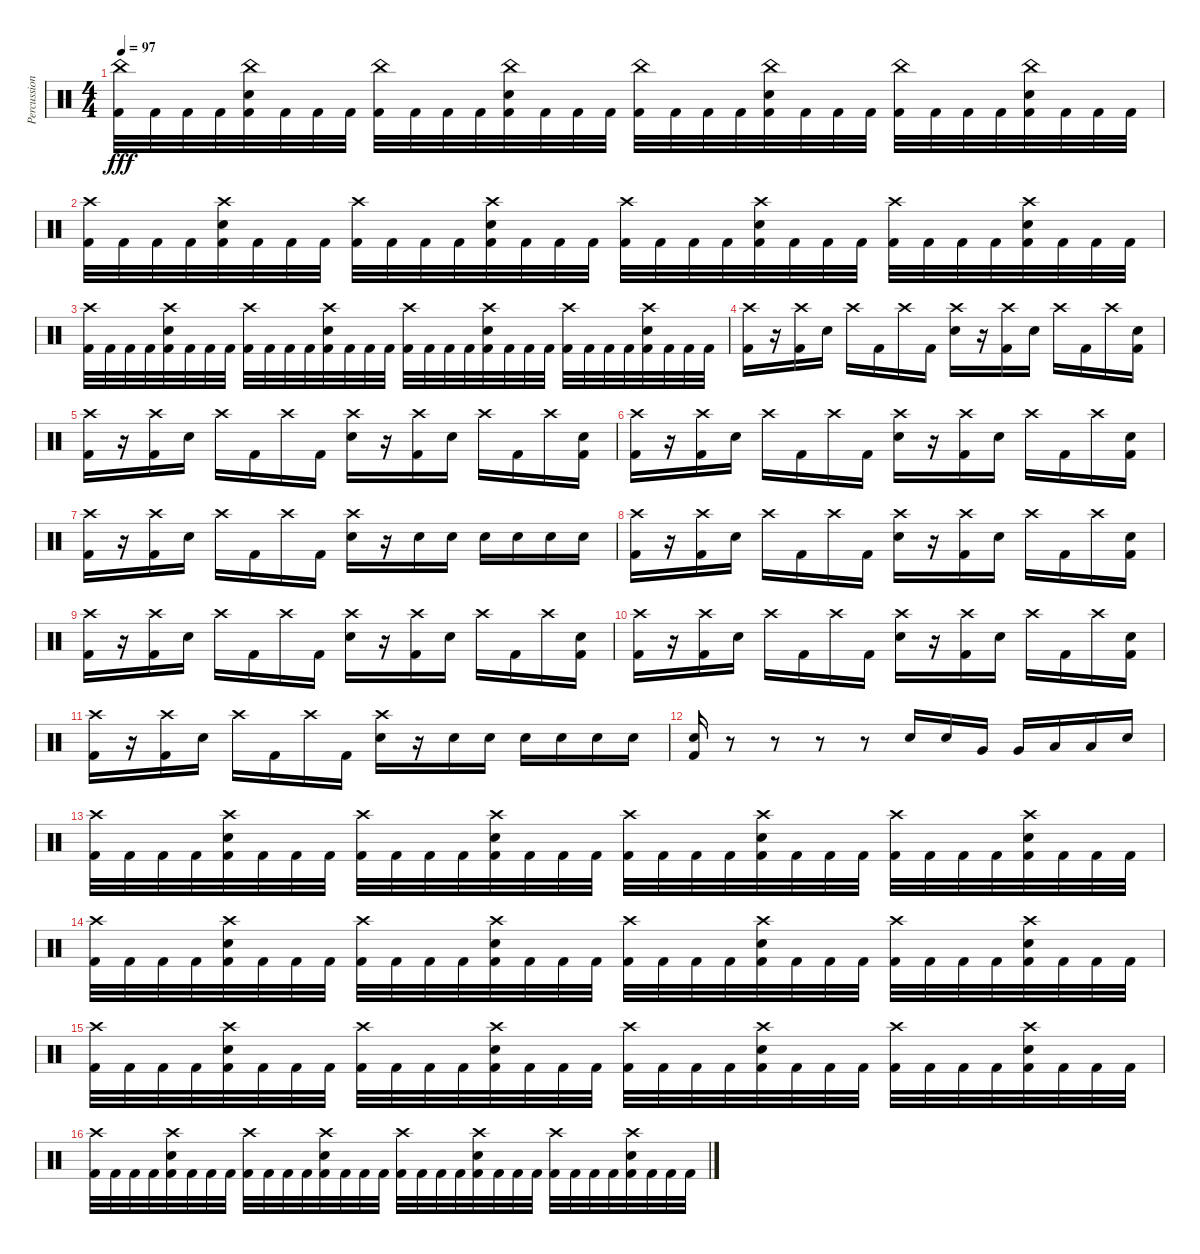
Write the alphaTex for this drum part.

\track ("Percussion" "Percussion") {instrument percussion}
\staff {score}
\articulation defaults
\ts (4 4)
\tempo 97
\clef neutral
\ks c
("China (hit)" "Kick (hit) 2").32{dy fff} "Kick (hit) 2".32 "Kick (hit) 2".32 "Kick (hit) 2".32 ("China (hit)" "Snare (hit) 2" "Kick (hit) 2").32 "Kick (hit) 2".32 "Kick (hit) 2".32 "Kick (hit) 2".32 ("China (hit)" "Kick (hit) 2").32 "Kick (hit) 2".32 "Kick (hit) 2".32 "Kick (hit) 2".32 ("China (hit)" "Snare (hit) 2" "Kick (hit) 2").32 "Kick (hit) 2".32 "Kick (hit) 2".32 "Kick (hit) 2".32 ("China (hit)" "Kick (hit) 2").32 "Kick (hit) 2".32 "Kick (hit) 2".32 "Kick (hit) 2".32 ("China (hit)" "Snare (hit) 2" "Kick (hit) 2").32 "Kick (hit) 2".32 "Kick (hit) 2".32 "Kick (hit) 2".32 ("China (hit)" "Kick (hit) 2").32 "Kick (hit) 2".32 "Kick (hit) 2".32 "Kick (hit) 2".32 ("China (hit)" "Snare (hit) 2" "Kick (hit) 2").32 "Kick (hit) 2".32 "Kick (hit) 2".32 "Kick (hit) 2".32 |
("Crash high (hit)" "Kick (hit) 2").32 "Kick (hit) 2".32 "Kick (hit) 2".32 "Kick (hit) 2".32 ("Crash high (hit)" "Snare (hit) 2" "Kick (hit) 2").32 "Kick (hit) 2".32 "Kick (hit) 2".32 "Kick (hit) 2".32 ("Crash high (hit)" "Kick (hit) 2").32 "Kick (hit) 2".32 "Kick (hit) 2".32 "Kick (hit) 2".32 ("Crash high (hit)" "Snare (hit) 2" "Kick (hit) 2").32 "Kick (hit) 2".32 "Kick (hit) 2".32 "Kick (hit) 2".32 ("Crash high (hit)" "Kick (hit) 2").32 "Kick (hit) 2".32 "Kick (hit) 2".32 "Kick (hit) 2".32 ("Crash high (hit)" "Snare (hit) 2" "Kick (hit) 2").32 "Kick (hit) 2".32 "Kick (hit) 2".32 "Kick (hit) 2".32 ("Crash high (hit)" "Kick (hit) 2").32 "Kick (hit) 2".32 "Kick (hit) 2".32 "Kick (hit) 2".32 ("Crash high (hit)" "Snare (hit) 2" "Kick (hit) 2").32 "Kick (hit) 2".32 "Kick (hit) 2".32 "Kick (hit) 2".32 |
("Crash high (hit)" "Kick (hit) 2").32 "Kick (hit) 2".32 "Kick (hit) 2".32 "Kick (hit) 2".32 ("Crash high (hit)" "Snare (hit) 2" "Kick (hit) 2").32 "Kick (hit) 2".32 "Kick (hit) 2".32 "Kick (hit) 2".32 ("Crash high (hit)" "Kick (hit) 2").32 "Kick (hit) 2".32 "Kick (hit) 2".32 "Kick (hit) 2".32 ("Crash high (hit)" "Snare (hit) 2" "Kick (hit) 2").32 "Kick (hit) 2".32 "Kick (hit) 2".32 "Kick (hit) 2".32 ("Crash high (hit)" "Kick (hit) 2").32 "Kick (hit) 2".32 "Kick (hit) 2".32 "Kick (hit) 2".32 ("Crash high (hit)" "Snare (hit) 2" "Kick (hit) 2").32 "Kick (hit) 2".32 "Kick (hit) 2".32 "Kick (hit) 2".32 ("Crash high (hit)" "Kick (hit) 2").32 "Kick (hit) 2".32 "Kick (hit) 2".32 "Kick (hit) 2".32 ("Crash high (hit)" "Snare (hit) 2" "Kick (hit) 2").32 "Kick (hit) 2".32 "Kick (hit) 2".32 "Kick (hit) 2".32 |
("Crash high (hit)" "Kick (hit) 2").16 r.16 ("Crash high (hit)" "Kick (hit) 2").16 "Snare (hit) 2".16 "Crash high (hit)".16 "Kick (hit) 2".16 "Crash high (hit)".16 "Kick (hit) 2".16 ("Crash high (hit)" "Snare (hit) 2").16 r.16 ("Crash high (hit)" "Kick (hit) 2").16 "Snare (hit) 2".16 "Crash high (hit)".16 "Kick (hit) 2".16 "Crash high (hit)".16 ("Snare (hit) 2" "Kick (hit) 2").16 |
("Crash high (hit)" "Kick (hit) 2").16 r.16 ("Crash high (hit)" "Kick (hit) 2").16 "Snare (hit) 2".16 "Crash high (hit)".16 "Kick (hit) 2".16 "Crash high (hit)".16 "Kick (hit) 2".16 ("Crash high (hit)" "Snare (hit) 2").16 r.16 ("Crash high (hit)" "Kick (hit) 2").16 "Snare (hit) 2".16 "Crash high (hit)".16 "Kick (hit) 2".16 "Crash high (hit)".16 ("Snare (hit) 2" "Kick (hit) 2").16 |
("Crash high (hit)" "Kick (hit) 2").16 r.16 ("Crash high (hit)" "Kick (hit) 2").16 "Snare (hit) 2".16 "Crash high (hit)".16 "Kick (hit) 2".16 "Crash high (hit)".16 "Kick (hit) 2".16 ("Crash high (hit)" "Snare (hit) 2").16 r.16 ("Crash high (hit)" "Kick (hit) 2").16 "Snare (hit) 2".16 "Crash high (hit)".16 "Kick (hit) 2".16 "Crash high (hit)".16 ("Snare (hit) 2" "Kick (hit) 2").16 |
("Crash high (hit)" "Kick (hit) 2").16 r.16 ("Crash high (hit)" "Kick (hit) 2").16 "Snare (hit) 2".16 "Crash high (hit)".16 "Kick (hit) 2".16 "Crash high (hit)".16 "Kick (hit) 2".16 ("Crash high (hit)" "Snare (hit) 2").16 r.16 "Snare (hit) 2".16 "Snare (hit) 2".16 "Snare (hit) 2".16 "Snare (hit) 2".16 "Snare (hit) 2".16 "Snare (hit) 2".16 |
("Crash high (hit)" "Kick (hit) 2").16 r.16 ("Crash high (hit)" "Kick (hit) 2").16 "Snare (hit) 2".16 "Crash high (hit)".16 "Kick (hit) 2".16 "Crash high (hit)".16 "Kick (hit) 2".16 ("Crash high (hit)" "Snare (hit) 2").16 r.16 ("Crash high (hit)" "Kick (hit) 2").16 "Snare (hit) 2".16 "Crash high (hit)".16 "Kick (hit) 2".16 "Crash high (hit)".16 ("Snare (hit) 2" "Kick (hit) 2").16 |
("Crash high (hit)" "Kick (hit) 2").16 r.16 ("Crash high (hit)" "Kick (hit) 2").16 "Snare (hit) 2".16 "Crash high (hit)".16 "Kick (hit) 2".16 "Crash high (hit)".16 "Kick (hit) 2".16 ("Crash high (hit)" "Snare (hit) 2").16 r.16 ("Crash high (hit)" "Kick (hit) 2").16 "Snare (hit) 2".16 "Crash high (hit)".16 "Kick (hit) 2".16 "Crash high (hit)".16 ("Snare (hit) 2" "Kick (hit) 2").16 |
("Crash high (hit)" "Kick (hit) 2").16 r.16 ("Crash high (hit)" "Kick (hit) 2").16 "Snare (hit) 2".16 "Crash high (hit)".16 "Kick (hit) 2".16 "Crash high (hit)".16 "Kick (hit) 2".16 ("Crash high (hit)" "Snare (hit) 2").16 r.16 ("Crash high (hit)" "Kick (hit) 2").16 "Snare (hit) 2".16 "Crash high (hit)".16 "Kick (hit) 2".16 "Crash high (hit)".16 ("Snare (hit) 2" "Kick (hit) 2").16 |
("Crash high (hit)" "Kick (hit) 2").16 r.16 ("Crash high (hit)" "Kick (hit) 2").16 "Snare (hit) 2".16 "Crash high (hit)".16 "Kick (hit) 2".16 "Crash high (hit)".16 "Kick (hit) 2".16 ("Crash high (hit)" "Snare (hit) 2").16 r.16 "Snare (hit) 2".16 "Snare (hit) 2".16 "Snare (hit) 2".16 "Snare (hit) 2".16 "Snare (hit) 2".16 "Snare (hit) 2".16 |
("Snare (hit) 2" "Kick (hit) 2").16 r.8 r.8 r.8 r.8 "Snare (hit) 2".16 "Snare (hit) 2".16 "Very Low Tom (hit)".16 "Very Low Tom (hit)".16 "Low Floor Tom (hit)".16 "Low Floor Tom (hit)".16 "Snare (hit) 2".16 |
("Crash high (hit)" "Kick (hit) 2").32 "Kick (hit) 2".32 "Kick (hit) 2".32 "Kick (hit) 2".32 ("Crash high (hit)" "Snare (hit) 2" "Kick (hit) 2").32 "Kick (hit) 2".32 "Kick (hit) 2".32 "Kick (hit) 2".32 ("Crash high (hit)" "Kick (hit) 2").32 "Kick (hit) 2".32 "Kick (hit) 2".32 "Kick (hit) 2".32 ("Crash high (hit)" "Snare (hit) 2" "Kick (hit) 2").32 "Kick (hit) 2".32 "Kick (hit) 2".32 "Kick (hit) 2".32 ("Crash high (hit)" "Kick (hit) 2").32 "Kick (hit) 2".32 "Kick (hit) 2".32 "Kick (hit) 2".32 ("Crash high (hit)" "Snare (hit) 2" "Kick (hit) 2").32 "Kick (hit) 2".32 "Kick (hit) 2".32 "Kick (hit) 2".32 ("Crash high (hit)" "Kick (hit) 2").32 "Kick (hit) 2".32 "Kick (hit) 2".32 "Kick (hit) 2".32 ("Crash high (hit)" "Snare (hit) 2" "Kick (hit) 2").32 "Kick (hit) 2".32 "Kick (hit) 2".32 "Kick (hit) 2".32 |
("Crash high (hit)" "Kick (hit) 2").32 "Kick (hit) 2".32 "Kick (hit) 2".32 "Kick (hit) 2".32 ("Crash high (hit)" "Snare (hit) 2" "Kick (hit) 2").32 "Kick (hit) 2".32 "Kick (hit) 2".32 "Kick (hit) 2".32 ("Crash high (hit)" "Kick (hit) 2").32 "Kick (hit) 2".32 "Kick (hit) 2".32 "Kick (hit) 2".32 ("Crash high (hit)" "Snare (hit) 2" "Kick (hit) 2").32 "Kick (hit) 2".32 "Kick (hit) 2".32 "Kick (hit) 2".32 ("Crash high (hit)" "Kick (hit) 2").32 "Kick (hit) 2".32 "Kick (hit) 2".32 "Kick (hit) 2".32 ("Crash high (hit)" "Snare (hit) 2" "Kick (hit) 2").32 "Kick (hit) 2".32 "Kick (hit) 2".32 "Kick (hit) 2".32 ("Crash high (hit)" "Kick (hit) 2").32 "Kick (hit) 2".32 "Kick (hit) 2".32 "Kick (hit) 2".32 ("Crash high (hit)" "Snare (hit) 2" "Kick (hit) 2").32 "Kick (hit) 2".32 "Kick (hit) 2".32 "Kick (hit) 2".32 |
("Crash high (hit)" "Kick (hit) 2").32 "Kick (hit) 2".32 "Kick (hit) 2".32 "Kick (hit) 2".32 ("Crash high (hit)" "Snare (hit) 2" "Kick (hit) 2").32 "Kick (hit) 2".32 "Kick (hit) 2".32 "Kick (hit) 2".32 ("Crash high (hit)" "Kick (hit) 2").32 "Kick (hit) 2".32 "Kick (hit) 2".32 "Kick (hit) 2".32 ("Crash high (hit)" "Snare (hit) 2" "Kick (hit) 2").32 "Kick (hit) 2".32 "Kick (hit) 2".32 "Kick (hit) 2".32 ("Crash high (hit)" "Kick (hit) 2").32 "Kick (hit) 2".32 "Kick (hit) 2".32 "Kick (hit) 2".32 ("Crash high (hit)" "Snare (hit) 2" "Kick (hit) 2").32 "Kick (hit) 2".32 "Kick (hit) 2".32 "Kick (hit) 2".32 ("Crash high (hit)" "Kick (hit) 2").32 "Kick (hit) 2".32 "Kick (hit) 2".32 "Kick (hit) 2".32 ("Crash high (hit)" "Snare (hit) 2" "Kick (hit) 2").32 "Kick (hit) 2".32 "Kick (hit) 2".32 "Kick (hit) 2".32 |
("Crash high (hit)" "Kick (hit) 2").32 "Kick (hit) 2".32 "Kick (hit) 2".32 "Kick (hit) 2".32 ("Crash high (hit)" "Snare (hit) 2" "Kick (hit) 2").32 "Kick (hit) 2".32 "Kick (hit) 2".32 "Kick (hit) 2".32 ("Crash high (hit)" "Kick (hit) 2").32 "Kick (hit) 2".32 "Kick (hit) 2".32 "Kick (hit) 2".32 ("Crash high (hit)" "Snare (hit) 2" "Kick (hit) 2").32 "Kick (hit) 2".32 "Kick (hit) 2".32 "Kick (hit) 2".32 ("Crash high (hit)" "Kick (hit) 2").32 "Kick (hit) 2".32 "Kick (hit) 2".32 "Kick (hit) 2".32 ("Crash high (hit)" "Snare (hit) 2" "Kick (hit) 2").32 "Kick (hit) 2".32 "Kick (hit) 2".32 "Kick (hit) 2".32 ("Crash high (hit)" "Kick (hit) 2").32 "Kick (hit) 2".32 "Kick (hit) 2".32 "Kick (hit) 2".32 ("Crash high (hit)" "Snare (hit) 2" "Kick (hit) 2").32 "Kick (hit) 2".32 "Kick (hit) 2".32 "Kick (hit) 2".32
